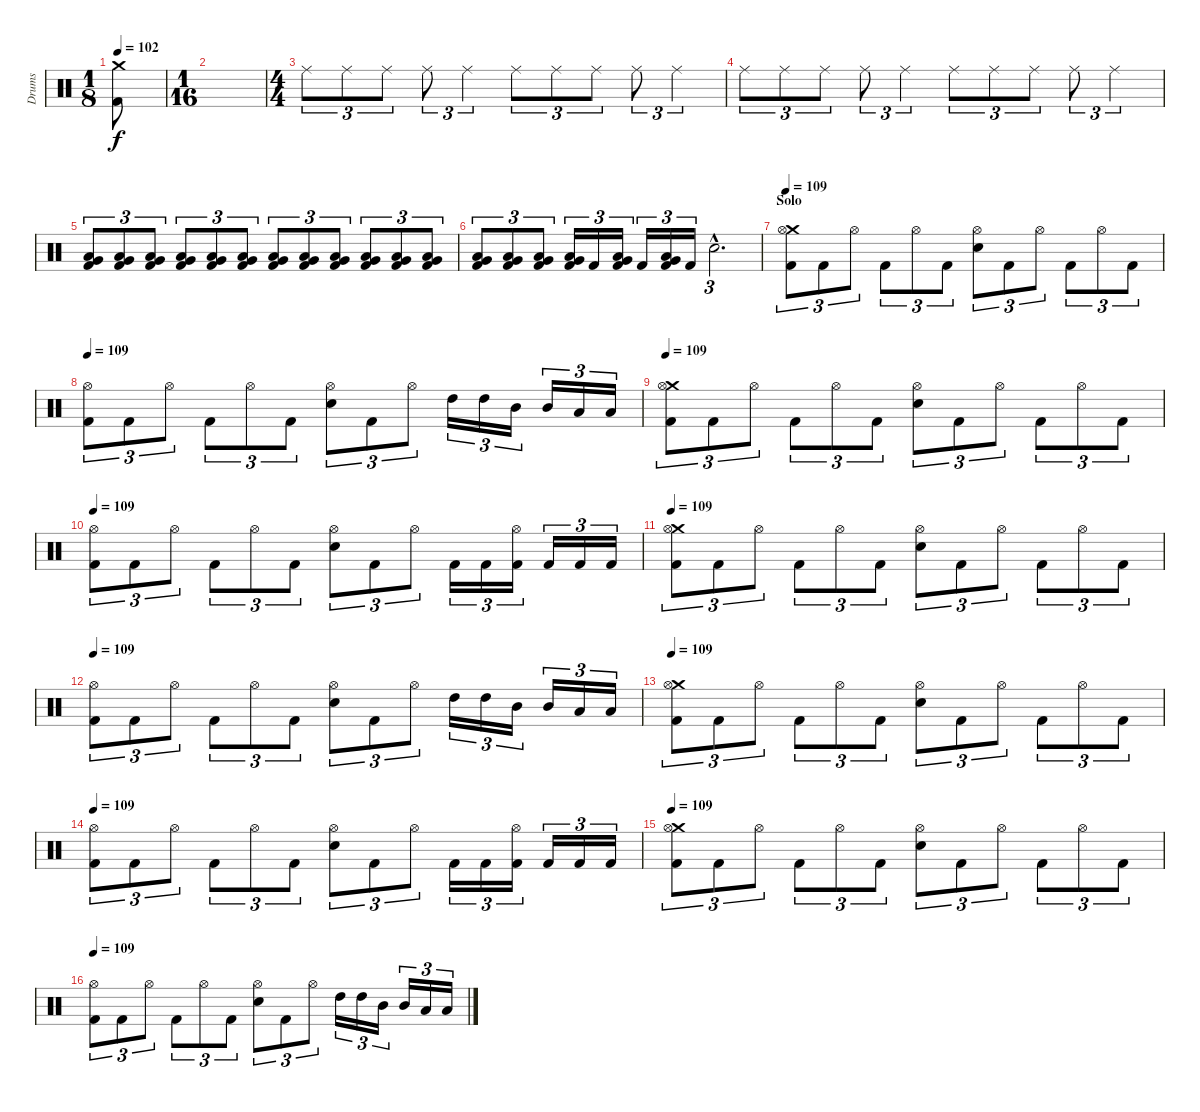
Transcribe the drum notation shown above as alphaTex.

\track ("Drums" "Drums") {instrument percussion}
\staff {score}
\articulation defaults
\ts (1 8)
\tempo 102
\clef neutral
\ks c
("Crash medium (hit)" "Kick (hit) 2").8{dy f} |
\ts (1 16)
|
\ts (4 4)
"Ride (middle)".8{tu (3 2)} "Ride (middle)".8{tu (3 2)} "Ride (middle)".8{tu (3 2)} "Ride (middle)".8{tu (3 2)} "Ride (middle)".4{tu (3 2)} "Ride (middle)".8{tu (3 2)} "Ride (middle)".8{tu (3 2)} "Ride (middle)".8{tu (3 2)} "Ride (middle)".8{tu (3 2)} "Ride (middle)".4{tu (3 2)} |
"Ride (middle)".8{tu (3 2)} "Ride (middle)".8{tu (3 2)} "Ride (middle)".8{tu (3 2)} "Ride (middle)".8{tu (3 2)} "Ride (middle)".4{tu (3 2)} "Ride (middle)".8{tu (3 2)} "Ride (middle)".8{tu (3 2)} "Ride (middle)".8{tu (3 2)} "Ride (middle)".8{tu (3 2)} "Ride (middle)".4{tu (3 2)} |
("Very Low Tom (hit)" "Low Floor Tom (hit)" "Kick (hit) 2").8{tu (3 2)} ("Very Low Tom (hit)" "Low Floor Tom (hit)" "Kick (hit) 2").8{tu (3 2)} ("Very Low Tom (hit)" "Low Floor Tom (hit)" "Kick (hit) 2").8{tu (3 2)} ("Very Low Tom (hit)" "Low Floor Tom (hit)" "Kick (hit) 2").8{tu (3 2)} ("Very Low Tom (hit)" "Low Floor Tom (hit)" "Kick (hit) 2").8{tu (3 2)} ("Very Low Tom (hit)" "Low Floor Tom (hit)" "Kick (hit) 2").8{tu (3 2)} ("Very Low Tom (hit)" "Low Floor Tom (hit)" "Kick (hit) 2").8{tu (3 2)} ("Very Low Tom (hit)" "Low Floor Tom (hit)" "Kick (hit) 2").8{tu (3 2)} ("Very Low Tom (hit)" "Low Floor Tom (hit)" "Kick (hit) 2").8{tu (3 2)} ("Very Low Tom (hit)" "Low Floor Tom (hit)" "Kick (hit) 2").8{tu (3 2)} ("Very Low Tom (hit)" "Low Floor Tom (hit)" "Kick (hit) 2").8{tu (3 2)} ("Very Low Tom (hit)" "Low Floor Tom (hit)" "Kick (hit) 2").8{tu (3 2)} |
("Very Low Tom (hit)" "Low Floor Tom (hit)" "Kick (hit) 2").8{tu (3 2)} ("Very Low Tom (hit)" "Low Floor Tom (hit)" "Kick (hit) 2").8{tu (3 2)} ("Very Low Tom (hit)" "Low Floor Tom (hit)" "Kick (hit) 2").8{tu (3 2)} ("Very Low Tom (hit)" "Low Floor Tom (hit)" "Kick (hit) 2").16{tu (3 2)} "Kick (hit) 2".16{tu (3 2)} ("Very Low Tom (hit)" "Low Floor Tom (hit)" "Kick (hit) 2").16{tu (3 2)} "Kick (hit) 2".16{tu (3 2)} ("Very Low Tom (hit)" "Low Floor Tom (hit)" "Kick (hit) 2").16{tu (3 2)} "Kick (hit) 2".16{tu (3 2)} "Snare (hit) 2"{hac}.2{d tu (3 2)} |
\section ("" "Solo")
\tempo 109
("Crash medium (hit)" "Hi-Hat (open)" "Kick (hit) 2").8{tu (3 2)} "Kick (hit) 2".8{tu (3 2)} "Hi-Hat (open)".8{tu (3 2)} "Kick (hit) 2".8{tu (3 2)} "Hi-Hat (open)".8{tu (3 2)} "Kick (hit) 2".8{tu (3 2)} ("Hi-Hat (open)" "Snare (hit) 2").8{tu (3 2)} "Kick (hit) 2".8{tu (3 2)} "Hi-Hat (open)".8{tu (3 2)} "Kick (hit) 2".8{tu (3 2)} "Hi-Hat (open)".8{tu (3 2)} "Kick (hit) 2".8{tu (3 2)} |
\tempo 109
("Hi-Hat (open)" "Kick (hit) 2").8{tu (3 2)} "Kick (hit) 2".8{tu (3 2)} "Hi-Hat (open)".8{tu (3 2)} "Kick (hit) 2".8{tu (3 2)} "Hi-Hat (open)".8{tu (3 2)} "Kick (hit) 2".8{tu (3 2)} ("Hi-Hat (open)" "Snare (hit) 2").8{tu (3 2)} "Kick (hit) 2".8{tu (3 2)} "Hi-Hat (open)".8{tu (3 2)} "High Tom (hit)".16{tu (3 2)} "High Tom (hit)".16{tu (3 2)} "Mid Tom (hit)".16{tu (3 2)} "Mid Tom (hit)".16{tu (3 2)} "Low Tom (hit)".16{tu (3 2)} "Low Tom (hit)".16{tu (3 2)} |
\tempo 109
("Crash medium (hit)" "Hi-Hat (open)" "Kick (hit) 2").8{tu (3 2)} "Kick (hit) 2".8{tu (3 2)} "Hi-Hat (open)".8{tu (3 2)} "Kick (hit) 2".8{tu (3 2)} "Hi-Hat (open)".8{tu (3 2)} "Kick (hit) 2".8{tu (3 2)} ("Hi-Hat (open)" "Snare (hit) 2").8{tu (3 2)} "Kick (hit) 2".8{tu (3 2)} "Hi-Hat (open)".8{tu (3 2)} "Kick (hit) 2".8{tu (3 2)} "Hi-Hat (open)".8{tu (3 2)} "Kick (hit) 2".8{tu (3 2)} |
\tempo 109
("Hi-Hat (open)" "Kick (hit) 2").8{tu (3 2)} "Kick (hit) 2".8{tu (3 2)} "Hi-Hat (open)".8{tu (3 2)} "Kick (hit) 2".8{tu (3 2)} "Hi-Hat (open)".8{tu (3 2)} "Kick (hit) 2".8{tu (3 2)} ("Hi-Hat (open)" "Snare (hit) 2").8{tu (3 2)} "Kick (hit) 2".8{tu (3 2)} "Hi-Hat (open)".8{tu (3 2)} "Kick (hit) 2".16{tu (3 2)} "Kick (hit) 2".16{tu (3 2)} ("Hi-Hat (open)" "Kick (hit) 2").16{tu (3 2)} "Kick (hit) 2".16{tu (3 2)} "Kick (hit) 2".16{tu (3 2)} "Kick (hit) 2".16{tu (3 2)} |
\tempo 109
("Crash medium (hit)" "Hi-Hat (open)" "Kick (hit) 2").8{tu (3 2)} "Kick (hit) 2".8{tu (3 2)} "Hi-Hat (open)".8{tu (3 2)} "Kick (hit) 2".8{tu (3 2)} "Hi-Hat (open)".8{tu (3 2)} "Kick (hit) 2".8{tu (3 2)} ("Hi-Hat (open)" "Snare (hit) 2").8{tu (3 2)} "Kick (hit) 2".8{tu (3 2)} "Hi-Hat (open)".8{tu (3 2)} "Kick (hit) 2".8{tu (3 2)} "Hi-Hat (open)".8{tu (3 2)} "Kick (hit) 2".8{tu (3 2)} |
\tempo 109
("Hi-Hat (open)" "Kick (hit) 2").8{tu (3 2)} "Kick (hit) 2".8{tu (3 2)} "Hi-Hat (open)".8{tu (3 2)} "Kick (hit) 2".8{tu (3 2)} "Hi-Hat (open)".8{tu (3 2)} "Kick (hit) 2".8{tu (3 2)} ("Hi-Hat (open)" "Snare (hit) 2").8{tu (3 2)} "Kick (hit) 2".8{tu (3 2)} "Hi-Hat (open)".8{tu (3 2)} "High Tom (hit)".16{tu (3 2)} "High Tom (hit)".16{tu (3 2)} "Mid Tom (hit)".16{tu (3 2)} "Mid Tom (hit)".16{tu (3 2)} "Low Tom (hit)".16{tu (3 2)} "Low Tom (hit)".16{tu (3 2)} |
\tempo 109
("Crash medium (hit)" "Hi-Hat (open)" "Kick (hit) 2").8{tu (3 2)} "Kick (hit) 2".8{tu (3 2)} "Hi-Hat (open)".8{tu (3 2)} "Kick (hit) 2".8{tu (3 2)} "Hi-Hat (open)".8{tu (3 2)} "Kick (hit) 2".8{tu (3 2)} ("Hi-Hat (open)" "Snare (hit) 2").8{tu (3 2)} "Kick (hit) 2".8{tu (3 2)} "Hi-Hat (open)".8{tu (3 2)} "Kick (hit) 2".8{tu (3 2)} "Hi-Hat (open)".8{tu (3 2)} "Kick (hit) 2".8{tu (3 2)} |
\tempo 109
("Hi-Hat (open)" "Kick (hit) 2").8{tu (3 2)} "Kick (hit) 2".8{tu (3 2)} "Hi-Hat (open)".8{tu (3 2)} "Kick (hit) 2".8{tu (3 2)} "Hi-Hat (open)".8{tu (3 2)} "Kick (hit) 2".8{tu (3 2)} ("Hi-Hat (open)" "Snare (hit) 2").8{tu (3 2)} "Kick (hit) 2".8{tu (3 2)} "Hi-Hat (open)".8{tu (3 2)} "Kick (hit) 2".16{tu (3 2)} "Kick (hit) 2".16{tu (3 2)} ("Hi-Hat (open)" "Kick (hit) 2").16{tu (3 2)} "Kick (hit) 2".16{tu (3 2)} "Kick (hit) 2".16{tu (3 2)} "Kick (hit) 2".16{tu (3 2)} |
\tempo 109
("Crash medium (hit)" "Hi-Hat (open)" "Kick (hit) 2").8{tu (3 2)} "Kick (hit) 2".8{tu (3 2)} "Hi-Hat (open)".8{tu (3 2)} "Kick (hit) 2".8{tu (3 2)} "Hi-Hat (open)".8{tu (3 2)} "Kick (hit) 2".8{tu (3 2)} ("Hi-Hat (open)" "Snare (hit) 2").8{tu (3 2)} "Kick (hit) 2".8{tu (3 2)} "Hi-Hat (open)".8{tu (3 2)} "Kick (hit) 2".8{tu (3 2)} "Hi-Hat (open)".8{tu (3 2)} "Kick (hit) 2".8{tu (3 2)} |
\tempo 109
("Hi-Hat (open)" "Kick (hit) 2").8{tu (3 2)} "Kick (hit) 2".8{tu (3 2)} "Hi-Hat (open)".8{tu (3 2)} "Kick (hit) 2".8{tu (3 2)} "Hi-Hat (open)".8{tu (3 2)} "Kick (hit) 2".8{tu (3 2)} ("Hi-Hat (open)" "Snare (hit) 2").8{tu (3 2)} "Kick (hit) 2".8{tu (3 2)} "Hi-Hat (open)".8{tu (3 2)} "High Tom (hit)".16{tu (3 2)} "High Tom (hit)".16{tu (3 2)} "Mid Tom (hit)".16{tu (3 2)} "Mid Tom (hit)".16{tu (3 2)} "Low Tom (hit)".16{tu (3 2)} "Low Tom (hit)".16{tu (3 2)}
